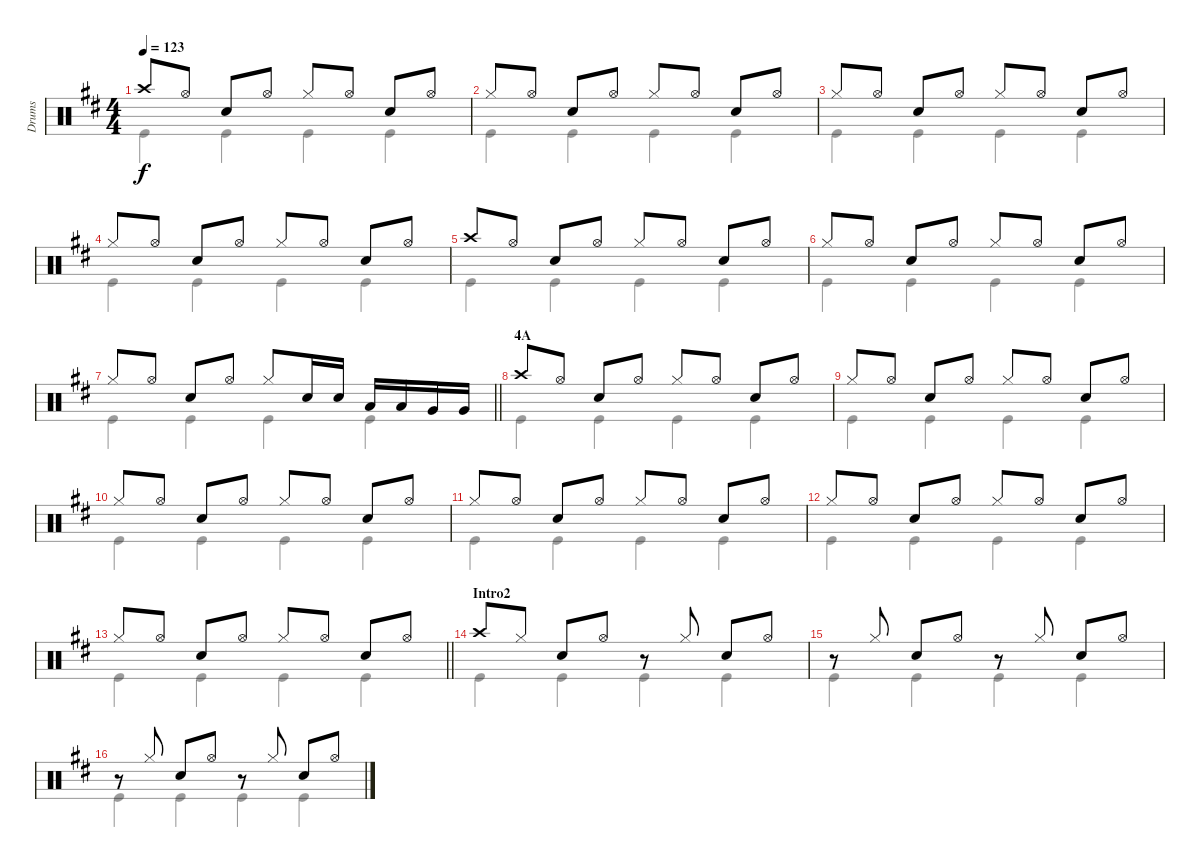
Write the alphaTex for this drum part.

\track ("Drums" "Drums") {instrument percussion}
\staff {score}
\articulation defaults
\voice
\ts (4 4)
\tempo 123
\clef neutral
\ks d "Crash high (hit)".8{dy f} "Hi-Hat (open)".8 "Snare (hit) 2".8 "Hi-Hat (open)".8 "Hi-Hat (closed)".8 "Hi-Hat (open)".8 "Snare (hit) 2".8 "Hi-Hat (open)".8
|
"Hi-Hat (closed)".8 "Hi-Hat (open)".8 "Snare (hit) 2".8 "Hi-Hat (open)".8 "Hi-Hat (closed)".8 "Hi-Hat (open)".8 "Snare (hit) 2".8 "Hi-Hat (open)".8 |
"Hi-Hat (closed)".8 "Hi-Hat (open)".8 "Snare (hit) 2".8 "Hi-Hat (open)".8 "Hi-Hat (closed)".8 "Hi-Hat (open)".8 "Snare (hit) 2".8 "Hi-Hat (open)".8 |
"Hi-Hat (closed)".8 "Hi-Hat (open)".8 "Snare (hit) 2".8 "Hi-Hat (open)".8 "Hi-Hat (closed)".8 "Hi-Hat (open)".8 "Snare (hit) 2".8 "Hi-Hat (open)".8 |
"Crash high (hit)".8 "Hi-Hat (open)".8 "Snare (hit) 2".8 "Hi-Hat (open)".8 "Hi-Hat (closed)".8 "Hi-Hat (open)".8 "Snare (hit) 2".8 "Hi-Hat (open)".8 |
"Hi-Hat (closed)".8 "Hi-Hat (open)".8 "Snare (hit) 2".8 "Hi-Hat (open)".8 "Hi-Hat (closed)".8 "Hi-Hat (open)".8 "Snare (hit) 2".8 "Hi-Hat (open)".8 |
\barLineRight lightlight "Hi-Hat (closed)".8 "Hi-Hat (open)".8 "Snare (hit) 2".8 "Hi-Hat (open)".8 "Hi-Hat (closed)".8 "Snare (hit) 2".16 "Snare (hit) 2".16 "Low Tom (hit)".16 "Low Tom (hit)".16 "Very Low Tom (hit)".16 "Very Low Tom (hit)".16
|
\section ("" "4A")
"Crash high (hit)".8 "Hi-Hat (open)".8 "Snare (hit) 2".8 "Hi-Hat (open)".8 "Hi-Hat (closed)".8 "Hi-Hat (open)".8 "Snare (hit) 2".8 "Hi-Hat (open)".8 |
"Hi-Hat (closed)".8 "Hi-Hat (open)".8 "Snare (hit) 2".8 "Hi-Hat (open)".8 "Hi-Hat (closed)".8 "Hi-Hat (open)".8 "Snare (hit) 2".8 "Hi-Hat (open)".8 |
"Hi-Hat (closed)".8 "Hi-Hat (open)".8 "Snare (hit) 2".8 "Hi-Hat (open)".8 "Hi-Hat (closed)".8 "Hi-Hat (open)".8 "Snare (hit) 2".8 "Hi-Hat (open)".8 |
"Hi-Hat (closed)".8 "Hi-Hat (open)".8 "Snare (hit) 2".8 "Hi-Hat (open)".8 "Hi-Hat (closed)".8 "Hi-Hat (open)".8 "Snare (hit) 2".8 "Hi-Hat (open)".8 |
"Hi-Hat (closed)".8 "Hi-Hat (open)".8 "Snare (hit) 2".8 "Hi-Hat (open)".8 "Hi-Hat (closed)".8 "Hi-Hat (open)".8 "Snare (hit) 2".8 "Hi-Hat (open)".8 |
\barLineRight lightlight "Hi-Hat (closed)".8 "Hi-Hat (open)".8 "Snare (hit) 2".8 "Hi-Hat (open)".8 "Hi-Hat (closed)".8 "Hi-Hat (open)".8 "Snare (hit) 2".8 "Hi-Hat (open)".8
|
\section ("" "Intro2")
"Crash high (hit)".8 "Hi-Hat (closed)".8 "Snare (hit) 2".8 "Hi-Hat (open)".8 r.8 "Hi-Hat (closed)".8 "Snare (hit) 2".8 "Hi-Hat (open)".8 |
r.8 "Hi-Hat (closed)".8 "Snare (hit) 2".8 "Hi-Hat (open)".8 r.8 "Hi-Hat (closed)".8 "Snare (hit) 2".8 "Hi-Hat (open)".8 |
r.8 "Hi-Hat (closed)".8 "Snare (hit) 2".8 "Hi-Hat (open)".8 r.8 "Hi-Hat (closed)".8 "Snare (hit) 2".8 "Hi-Hat (open)".8
\voice
\clef neutral
\ottava regular
\simile none
\ks d "Kick (hit)".4{dy f} "Kick (hit)".4 "Kick (hit)".4 "Kick (hit)".4
|
"Kick (hit)".4 "Kick (hit)".4 "Kick (hit)".4 "Kick (hit)".4 |
"Kick (hit)".4 "Kick (hit)".4 "Kick (hit)".4 "Kick (hit)".4 |
"Kick (hit)".4 "Kick (hit)".4 "Kick (hit)".4 "Kick (hit)".4 |
"Kick (hit)".4 "Kick (hit)".4 "Kick (hit)".4 "Kick (hit)".4 |
"Kick (hit)".4 "Kick (hit)".4 "Kick (hit)".4 "Kick (hit)".4 |
\barLineRight lightlight "Kick (hit)".4 "Kick (hit)".4 "Kick (hit)".4 "Kick (hit)".4
|
"Kick (hit)".4 "Kick (hit)".4 "Kick (hit)".4 "Kick (hit)".4 |
"Kick (hit)".4 "Kick (hit)".4 "Kick (hit)".4 "Kick (hit)".4 |
"Kick (hit)".4 "Kick (hit)".4 "Kick (hit)".4 "Kick (hit)".4 |
"Kick (hit)".4 "Kick (hit)".4 "Kick (hit)".4 "Kick (hit)".4 |
"Kick (hit)".4 "Kick (hit)".4 "Kick (hit)".4 "Kick (hit)".4 |
\barLineRight lightlight "Kick (hit)".4 "Kick (hit)".4 "Kick (hit)".4 "Kick (hit)".4
|
"Kick (hit)".4 "Kick (hit)".4 "Kick (hit)".4 "Kick (hit)".4 |
"Kick (hit)".4 "Kick (hit)".4 "Kick (hit)".4 "Kick (hit)".4 |
"Kick (hit)".4 "Kick (hit)".4 "Kick (hit)".4 "Kick (hit)".4
